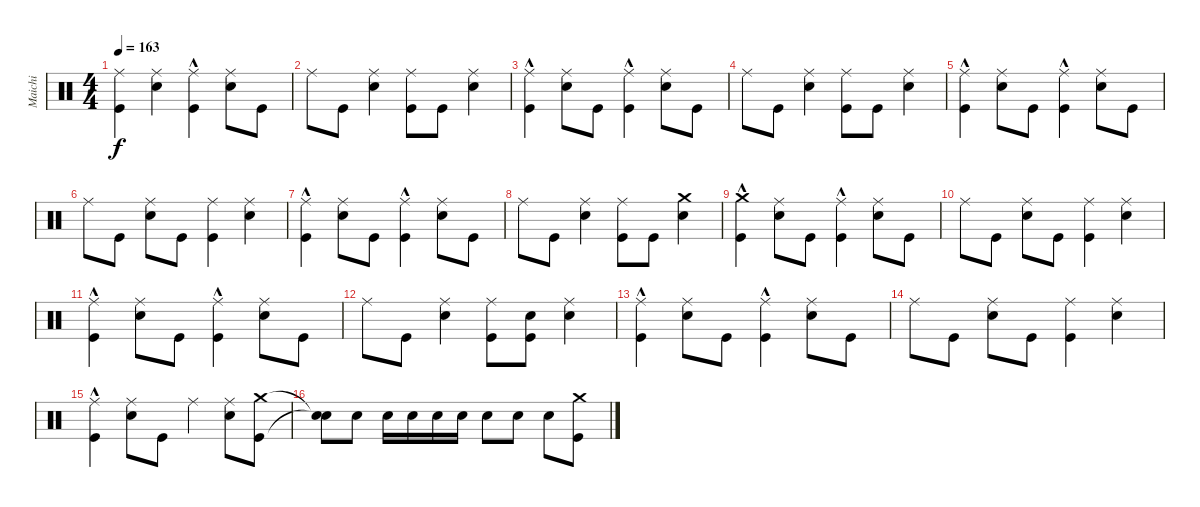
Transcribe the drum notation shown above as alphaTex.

\track ("Maichi" "Maichi") {instrument percussion}
\staff {score}
\articulation defaults
\ts (4 4)
\tempo 163
\clef neutral
\ks c
("Kick (hit)" "Ride (middle)").4{dy f} ("Ride (middle)" "Electric Snare (hit)").4 ("Ride (middle)" "Kick (hit)"{hac}).4 ("Electric Snare (hit)" "Ride (middle)").8 "Kick (hit)".8 |
"Ride (middle)".8 "Kick (hit)".8 ("Electric Snare (hit)" "Ride (middle)").4 ("Ride (middle)" "Kick (hit)").8 "Kick (hit)".8 ("Ride (middle)" "Electric Snare (hit)").4 |
("Kick (hit)"{hac} "Ride (middle)").4 ("Electric Snare (hit)" "Ride (middle)").8 "Kick (hit)".8 ("Ride (middle)" "Kick (hit)"{hac}).4 ("Ride (middle)" "Electric Snare (hit)").8 "Kick (hit)".8 |
"Ride (middle)".8 "Kick (hit)".8 ("Ride (middle)" "Electric Snare (hit)").4 ("Kick (hit)" "Ride (middle)").8 "Kick (hit)".8 ("Electric Snare (hit)" "Ride (middle)").4 |
("Kick (hit)"{hac} "Ride (middle)").4 ("Electric Snare (hit)" "Ride (middle)").8 "Kick (hit)".8 ("Ride (middle)" "Kick (hit)"{hac}).4 ("Ride (middle)" "Electric Snare (hit)").8 "Kick (hit)".8 |
"Ride (middle)".8 "Kick (hit)".8 ("Electric Snare (hit)" "Ride (middle)").8 "Kick (hit)".8 ("Ride (middle)" "Kick (hit)").4 ("Ride (middle)" "Electric Snare (hit)").4 |
("Kick (hit)"{hac} "Ride (middle)").4 ("Ride (middle)" "Electric Snare (hit)").8 "Kick (hit)".8 ("Ride (middle)" "Kick (hit)"{hac}).4 ("Ride (middle)" "Electric Snare (hit)").8 "Kick (hit)".8 |
"Ride (middle)".8 "Kick (hit)".8 ("Electric Snare (hit)" "Ride (middle)").4 ("Kick (hit)" "Ride (middle)").8 "Kick (hit)".8 ("Electric Snare (hit)" "Crash medium (hit)").4 |
("Crash medium (hit)" "Kick (hit)"{hac}).4 ("Ride (middle)" "Electric Snare (hit)").8 "Kick (hit)".8 ("Kick (hit)"{hac} "Ride (middle)").4 ("Electric Snare (hit)" "Ride (middle)").8 "Kick (hit)".8 |
"Ride (middle)".8 "Kick (hit)".8 ("Ride (middle)" "Electric Snare (hit)").8 "Kick (hit)".8 ("Ride (middle)" "Kick (hit)").4 ("Ride (middle)" "Electric Snare (hit)").4 |
("Ride (middle)" "Kick (hit)"{hac}).4 ("Ride (middle)" "Electric Snare (hit)").8 "Kick (hit)".8 ("Kick (hit)"{hac} "Ride (middle)").4 ("Electric Snare (hit)" "Ride (middle)").8 "Kick (hit)".8 |
"Ride (middle)".8 "Kick (hit)".8 ("Ride (middle)" "Electric Snare (hit)").4 ("Ride (middle)" "Kick (hit)").8 ("Electric Snare (hit)" "Kick (hit)").8 ("Electric Snare (hit)" "Ride (middle)").4 |
("Ride (middle)" "Kick (hit)"{hac}).4 ("Ride (middle)" "Electric Snare (hit)").8 "Kick (hit)".8 ("Ride (middle)" "Kick (hit)"{hac}).4 ("Ride (middle)" "Electric Snare (hit)").8 "Kick (hit)".8 |
"Ride (middle)".8 "Kick (hit)".8 ("Ride (middle)" "Electric Snare (hit)").8 "Kick (hit)".8 ("Ride (middle)" "Kick (hit)").4 ("Electric Snare (hit)" "Ride (middle)").4 |
("Ride (middle)" "Kick (hit)"{hac}).4 ("Electric Snare (hit)" "Ride (middle)").8 "Kick (hit)".8 "Ride (middle)".4 ("Electric Snare (hit)" "Ride (middle)").8 ("Crash medium (hit)" "Kick (hit)").8 |
("Snare (hit)"{t} "Snare (hit)"{t}).8 "Electric Snare (hit)".8 "Electric Snare (hit)".16 "Electric Snare (hit)".16 "Electric Snare (hit)".16 "Electric Snare (hit)".16 "Electric Snare (hit)".8 "Electric Snare (hit)".8 "Electric Snare (hit)".8 ("Crash medium (hit)" "Kick (hit)").8
